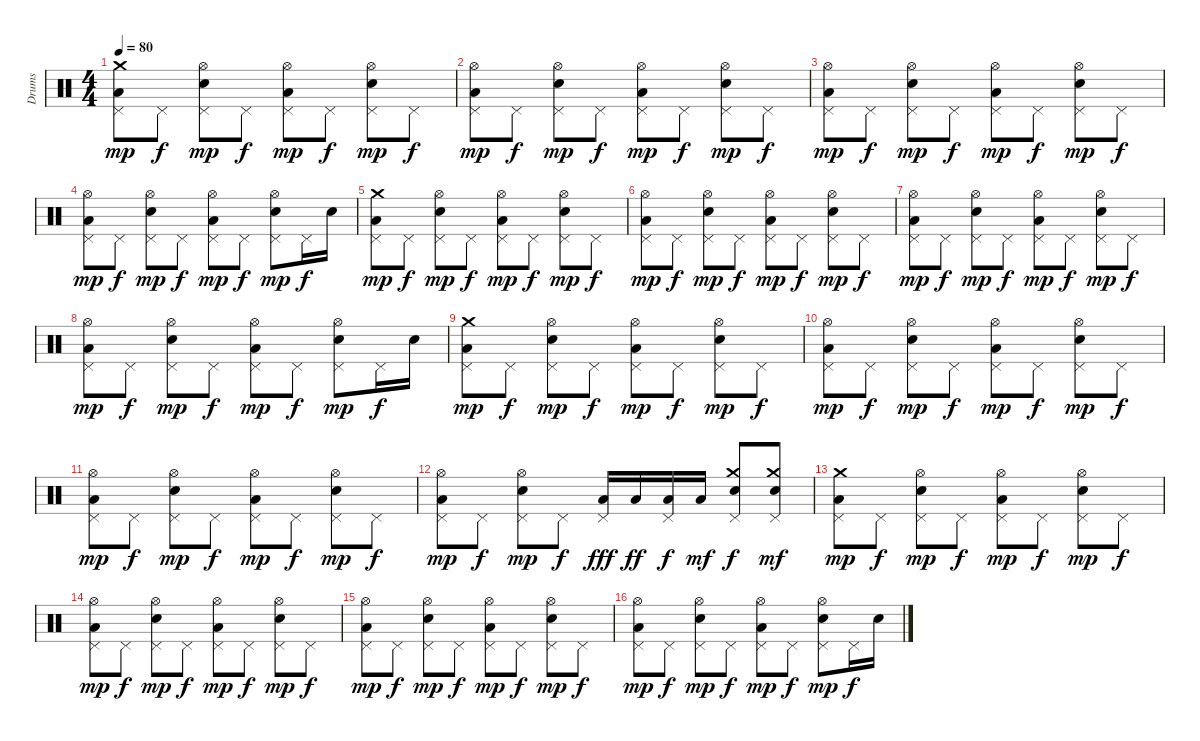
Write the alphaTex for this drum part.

\track ("Drums" "Drums") {instrument percussion}
\staff {score}
\articulation defaults
\ts (4 4)
\tempo 80
\clef neutral
\ks c
("Low Floor Tom (hit)" "Pedal Hi-Hat (hit)" "Crash medium (hit)").8{dy mp} "Pedal Hi-Hat (hit)".8{dy f} ("Electric Snare (hit)" "Pedal Hi-Hat (hit)" "Hi-Hat (open)").8{dy mp} "Pedal Hi-Hat (hit)".8{dy f} ("Low Floor Tom (hit)" "Pedal Hi-Hat (hit)" "Hi-Hat (open)").8{dy mp} "Pedal Hi-Hat (hit)".8{dy f} ("Electric Snare (hit)" "Pedal Hi-Hat (hit)" "Hi-Hat (open)").8{dy mp} "Pedal Hi-Hat (hit)".8{dy f} |
("Low Floor Tom (hit)" "Pedal Hi-Hat (hit)" "Hi-Hat (open)").8{dy mp} "Pedal Hi-Hat (hit)".8{dy f} ("Electric Snare (hit)" "Pedal Hi-Hat (hit)" "Hi-Hat (open)").8{dy mp} "Pedal Hi-Hat (hit)".8{dy f} ("Low Floor Tom (hit)" "Pedal Hi-Hat (hit)" "Hi-Hat (open)").8{dy mp} "Pedal Hi-Hat (hit)".8{dy f} ("Electric Snare (hit)" "Pedal Hi-Hat (hit)" "Hi-Hat (open)").8{dy mp} "Pedal Hi-Hat (hit)".8{dy f} |
("Low Floor Tom (hit)" "Pedal Hi-Hat (hit)" "Hi-Hat (open)").8{dy mp} "Pedal Hi-Hat (hit)".8{dy f} ("Electric Snare (hit)" "Pedal Hi-Hat (hit)" "Hi-Hat (open)").8{dy mp} "Pedal Hi-Hat (hit)".8{dy f} ("Low Floor Tom (hit)" "Pedal Hi-Hat (hit)" "Hi-Hat (open)").8{dy mp} "Pedal Hi-Hat (hit)".8{dy f} ("Electric Snare (hit)" "Pedal Hi-Hat (hit)" "Hi-Hat (open)").8{dy mp} "Pedal Hi-Hat (hit)".8{dy f} |
("Low Floor Tom (hit)" "Pedal Hi-Hat (hit)" "Hi-Hat (open)").8{dy mp} "Pedal Hi-Hat (hit)".8{dy f} ("Electric Snare (hit)" "Pedal Hi-Hat (hit)" "Hi-Hat (open)").8{dy mp} "Pedal Hi-Hat (hit)".8{dy f} ("Low Floor Tom (hit)" "Pedal Hi-Hat (hit)" "Hi-Hat (open)").8{dy mp} "Pedal Hi-Hat (hit)".8{dy f} ("Electric Snare (hit)" "Pedal Hi-Hat (hit)" "Hi-Hat (open)").8{dy mp} "Pedal Hi-Hat (hit)".16{dy f} "Electric Snare (hit)".16 |
("Low Floor Tom (hit)" "Pedal Hi-Hat (hit)" "Crash medium (hit)").8{dy mp} "Pedal Hi-Hat (hit)".8{dy f} ("Electric Snare (hit)" "Pedal Hi-Hat (hit)" "Hi-Hat (open)").8{dy mp} "Pedal Hi-Hat (hit)".8{dy f} ("Low Floor Tom (hit)" "Pedal Hi-Hat (hit)" "Hi-Hat (open)").8{dy mp} "Pedal Hi-Hat (hit)".8{dy f} ("Electric Snare (hit)" "Pedal Hi-Hat (hit)" "Hi-Hat (open)").8{dy mp} "Pedal Hi-Hat (hit)".8{dy f} |
("Low Floor Tom (hit)" "Pedal Hi-Hat (hit)" "Hi-Hat (open)").8{dy mp} "Pedal Hi-Hat (hit)".8{dy f} ("Electric Snare (hit)" "Pedal Hi-Hat (hit)" "Hi-Hat (open)").8{dy mp} "Pedal Hi-Hat (hit)".8{dy f} ("Low Floor Tom (hit)" "Pedal Hi-Hat (hit)" "Hi-Hat (open)").8{dy mp} "Pedal Hi-Hat (hit)".8{dy f} ("Electric Snare (hit)" "Pedal Hi-Hat (hit)" "Hi-Hat (open)").8{dy mp} "Pedal Hi-Hat (hit)".8{dy f} |
("Low Floor Tom (hit)" "Pedal Hi-Hat (hit)" "Hi-Hat (open)").8{dy mp} "Pedal Hi-Hat (hit)".8{dy f} ("Electric Snare (hit)" "Pedal Hi-Hat (hit)" "Hi-Hat (open)").8{dy mp} "Pedal Hi-Hat (hit)".8{dy f} ("Low Floor Tom (hit)" "Pedal Hi-Hat (hit)" "Hi-Hat (open)").8{dy mp} "Pedal Hi-Hat (hit)".8{dy f} ("Electric Snare (hit)" "Pedal Hi-Hat (hit)" "Hi-Hat (open)").8{dy mp} "Pedal Hi-Hat (hit)".8{dy f} |
("Low Floor Tom (hit)" "Pedal Hi-Hat (hit)" "Hi-Hat (open)").8{dy mp} "Pedal Hi-Hat (hit)".8{dy f} ("Electric Snare (hit)" "Pedal Hi-Hat (hit)" "Hi-Hat (open)").8{dy mp} "Pedal Hi-Hat (hit)".8{dy f} ("Low Floor Tom (hit)" "Pedal Hi-Hat (hit)" "Hi-Hat (open)").8{dy mp} "Pedal Hi-Hat (hit)".8{dy f} ("Electric Snare (hit)" "Pedal Hi-Hat (hit)" "Hi-Hat (open)").8{dy mp} "Pedal Hi-Hat (hit)".16{dy f} "Electric Snare (hit)".16 |
("Low Floor Tom (hit)" "Pedal Hi-Hat (hit)" "Crash medium (hit)").8{dy mp} "Pedal Hi-Hat (hit)".8{dy f} ("Electric Snare (hit)" "Pedal Hi-Hat (hit)" "Hi-Hat (open)").8{dy mp} "Pedal Hi-Hat (hit)".8{dy f} ("Low Floor Tom (hit)" "Pedal Hi-Hat (hit)" "Hi-Hat (open)").8{dy mp} "Pedal Hi-Hat (hit)".8{dy f} ("Electric Snare (hit)" "Pedal Hi-Hat (hit)" "Hi-Hat (open)").8{dy mp} "Pedal Hi-Hat (hit)".8{dy f} |
("Low Floor Tom (hit)" "Pedal Hi-Hat (hit)" "Hi-Hat (open)").8{dy mp} "Pedal Hi-Hat (hit)".8{dy f} ("Electric Snare (hit)" "Pedal Hi-Hat (hit)" "Hi-Hat (open)").8{dy mp} "Pedal Hi-Hat (hit)".8{dy f} ("Low Floor Tom (hit)" "Pedal Hi-Hat (hit)" "Hi-Hat (open)").8{dy mp} "Pedal Hi-Hat (hit)".8{dy f} ("Electric Snare (hit)" "Pedal Hi-Hat (hit)" "Hi-Hat (open)").8{dy mp} "Pedal Hi-Hat (hit)".8{dy f} |
("Low Floor Tom (hit)" "Pedal Hi-Hat (hit)" "Hi-Hat (open)").8{dy mp} "Pedal Hi-Hat (hit)".8{dy f} ("Electric Snare (hit)" "Pedal Hi-Hat (hit)" "Hi-Hat (open)").8{dy mp} "Pedal Hi-Hat (hit)".8{dy f} ("Low Floor Tom (hit)" "Pedal Hi-Hat (hit)" "Hi-Hat (open)").8{dy mp} "Pedal Hi-Hat (hit)".8{dy f} ("Electric Snare (hit)" "Pedal Hi-Hat (hit)" "Hi-Hat (open)").8{dy mp} "Pedal Hi-Hat (hit)".8{dy f} |
("Low Floor Tom (hit)" "Pedal Hi-Hat (hit)" "Hi-Hat (open)").8{dy mp} "Pedal Hi-Hat (hit)".8{dy f} ("Electric Snare (hit)" "Pedal Hi-Hat (hit)" "Hi-Hat (open)").8{dy mp} "Pedal Hi-Hat (hit)".8{dy f} ("Low Floor Tom (hit)" "Pedal Hi-Hat (hit)").16{dy fff} "Low Floor Tom (hit)".16{dy ff} ("Low Floor Tom (hit)" "Pedal Hi-Hat (hit)").16{dy f} "Low Floor Tom (hit)".16{dy mf} ("Electric Snare (hit)" "Pedal Hi-Hat (hit)" "Crash medium (hit)").8{dy f} ("Electric Snare (hit)" "Pedal Hi-Hat (hit)" "Crash medium (hit)").8{dy mf} |
("Low Floor Tom (hit)" "Pedal Hi-Hat (hit)" "Crash medium (hit)").8{dy mp} "Pedal Hi-Hat (hit)".8{dy f} ("Electric Snare (hit)" "Pedal Hi-Hat (hit)" "Hi-Hat (open)").8{dy mp} "Pedal Hi-Hat (hit)".8{dy f} ("Low Floor Tom (hit)" "Pedal Hi-Hat (hit)" "Hi-Hat (open)").8{dy mp} "Pedal Hi-Hat (hit)".8{dy f} ("Electric Snare (hit)" "Pedal Hi-Hat (hit)" "Hi-Hat (open)").8{dy mp} "Pedal Hi-Hat (hit)".8{dy f} |
("Low Floor Tom (hit)" "Pedal Hi-Hat (hit)" "Hi-Hat (open)").8{dy mp} "Pedal Hi-Hat (hit)".8{dy f} ("Electric Snare (hit)" "Pedal Hi-Hat (hit)" "Hi-Hat (open)").8{dy mp} "Pedal Hi-Hat (hit)".8{dy f} ("Low Floor Tom (hit)" "Pedal Hi-Hat (hit)" "Hi-Hat (open)").8{dy mp} "Pedal Hi-Hat (hit)".8{dy f} ("Electric Snare (hit)" "Pedal Hi-Hat (hit)" "Hi-Hat (open)").8{dy mp} "Pedal Hi-Hat (hit)".8{dy f} |
("Low Floor Tom (hit)" "Pedal Hi-Hat (hit)" "Hi-Hat (open)").8{dy mp} "Pedal Hi-Hat (hit)".8{dy f} ("Electric Snare (hit)" "Pedal Hi-Hat (hit)" "Hi-Hat (open)").8{dy mp} "Pedal Hi-Hat (hit)".8{dy f} ("Low Floor Tom (hit)" "Pedal Hi-Hat (hit)" "Hi-Hat (open)").8{dy mp} "Pedal Hi-Hat (hit)".8{dy f} ("Electric Snare (hit)" "Pedal Hi-Hat (hit)" "Hi-Hat (open)").8{dy mp} "Pedal Hi-Hat (hit)".8{dy f} |
("Low Floor Tom (hit)" "Pedal Hi-Hat (hit)" "Hi-Hat (open)").8{dy mp} "Pedal Hi-Hat (hit)".8{dy f} ("Electric Snare (hit)" "Pedal Hi-Hat (hit)" "Hi-Hat (open)").8{dy mp} "Pedal Hi-Hat (hit)".8{dy f} ("Low Floor Tom (hit)" "Pedal Hi-Hat (hit)" "Hi-Hat (open)").8{dy mp} "Pedal Hi-Hat (hit)".8{dy f} ("Electric Snare (hit)" "Pedal Hi-Hat (hit)" "Hi-Hat (open)").8{dy mp} "Pedal Hi-Hat (hit)".16{dy f} "Electric Snare (hit)".16
